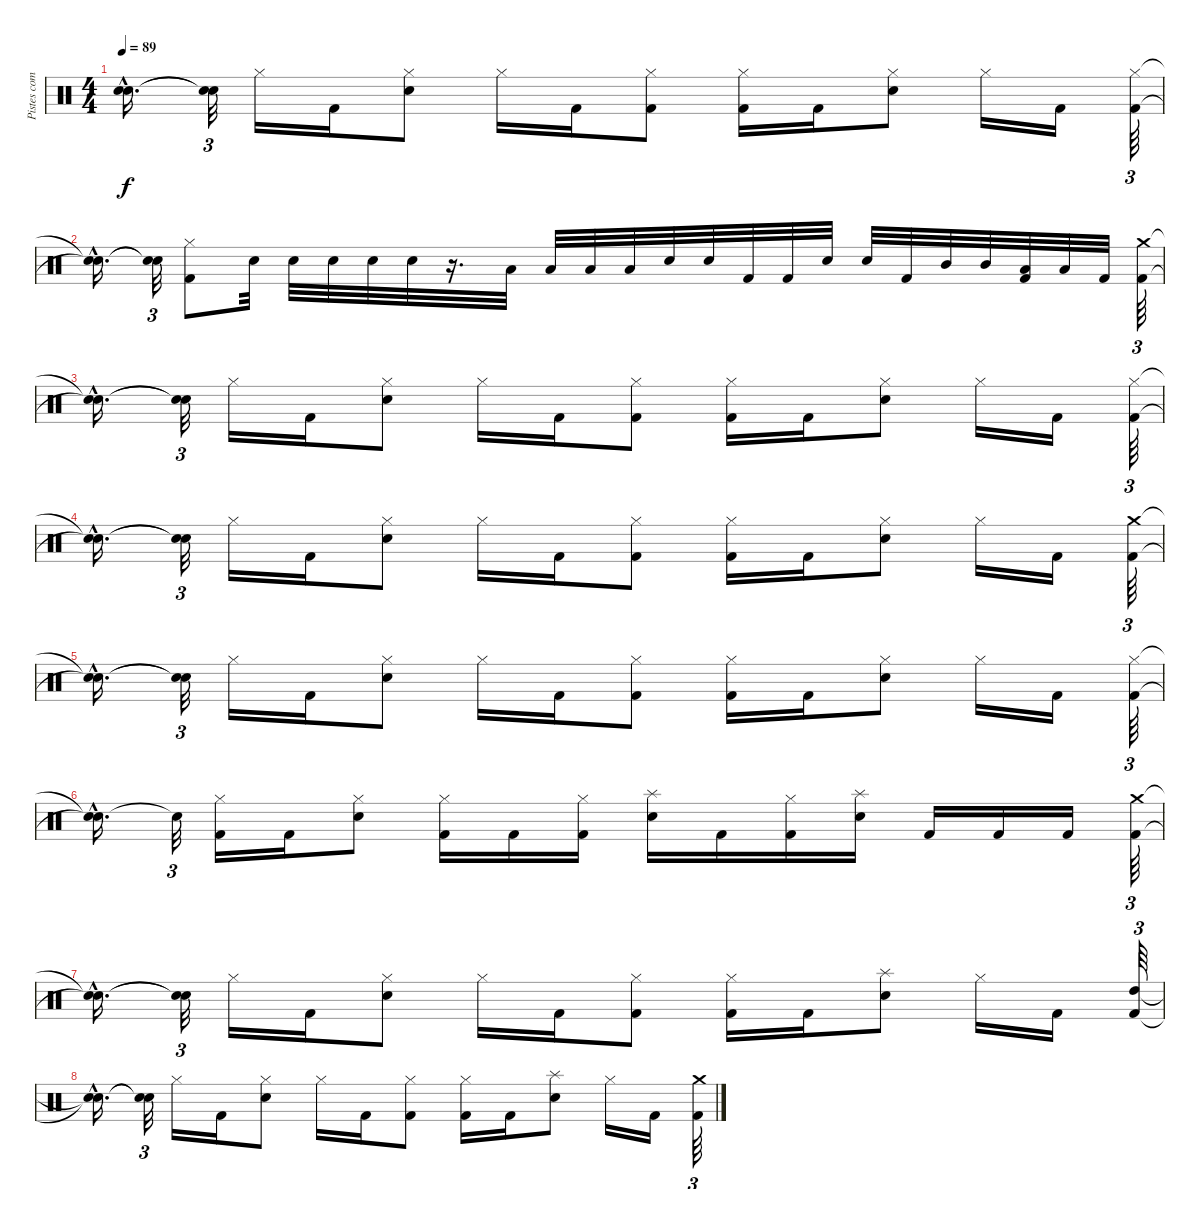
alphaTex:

\track ("Pistes combinées" "Pistes com") {instrument percussion}
\staff {score}
\articulation defaults
\ts (4 4)
\tempo 89
\clef neutral
\ks c
("Snare (hit)"{hac t} "Snare (hit)"{hac t}).16{d dy f} ("Snare (hit)"{t} "Snare (hit)"{t}).32{tu (3 2)} "Hi-Hat (closed)".16 "Kick (hit) 2".16 ("Hi-Hat (closed)" "Electric Snare (hit)").8 "Hi-Hat (closed)".16 "Kick (hit) 2".16 ("Hi-Hat (closed)" "Kick (hit) 2").8 ("Hi-Hat (closed)" "Kick (hit) 2").16 "Kick (hit) 2".16 ("Hi-Hat (closed)" "Electric Snare (hit)").8 "Hi-Hat (closed)".16 "Kick (hit) 2".16 ("Hi-Hat (closed)" "Kick (hit) 2").64{tu (3 2)} |
("Snare (hit)"{hac t} "Snare (hit)"{hac t}).16{d} ("Snare (hit)"{t} "Snare (hit)"{t}).32{tu (3 2)} ("Hi-Hat (closed)" "Kick (hit) 2").8 "Electric Snare (hit)".32 "Electric Snare (hit)".32 "Electric Snare (hit)".32 "Electric Snare (hit)".32 "Electric Snare (hit)".32 r.16{d} "Low Tom (hit)".32 "Low Tom (hit)".32 "Low Tom (hit)".32 "Low Tom (hit)".32 "Electric Snare (hit)".32 "Electric Snare (hit)".32 "Kick (hit) 2".32 "Kick (hit) 2".32 "Electric Snare (hit)".32 "Electric Snare (hit)".32 "Kick (hit) 2".32 "Mid Tom (hit)".32 "Mid Tom (hit)".32 ("Kick (hit) 2" "Low Tom (hit)").32 "Low Tom (hit)".32 "Kick (hit) 2".32 ("Crash medium (hit)" "Kick (hit) 2").64{tu (3 2)} |
("Snare (hit)"{hac t} "Snare (hit)"{hac t}).16{d} ("Snare (hit)"{t} "Snare (hit)"{t}).32{tu (3 2)} "Hi-Hat (closed)".16 "Kick (hit) 2".16 ("Hi-Hat (closed)" "Electric Snare (hit)").8 "Hi-Hat (closed)".16 "Kick (hit) 2".16 ("Hi-Hat (closed)" "Kick (hit) 2").8 ("Hi-Hat (closed)" "Kick (hit) 2").16 "Kick (hit) 2".16 ("Hi-Hat (closed)" "Electric Snare (hit)").8 "Hi-Hat (closed)".16 "Kick (hit) 2".16 ("Hi-Hat (closed)" "Kick (hit) 2").64{tu (3 2)} |
("Snare (hit)"{hac t} "Snare (hit)"{hac t}).16{d} ("Snare (hit)"{t} "Snare (hit)"{t}).32{tu (3 2)} "Hi-Hat (closed)".16 "Kick (hit) 2".16 ("Hi-Hat (closed)" "Electric Snare (hit)").8 "Hi-Hat (closed)".16 "Kick (hit) 2".16 ("Hi-Hat (closed)" "Kick (hit) 2").8 ("Hi-Hat (closed)" "Kick (hit) 2").16 "Kick (hit) 2".16 ("Hi-Hat (closed)" "Electric Snare (hit)").8 "Hi-Hat (closed)".16 "Kick (hit) 2".16 ("Crash medium (hit)" "Kick (hit) 2").64{tu (3 2)} |
("Snare (hit)"{hac t} "Snare (hit)"{hac t}).16{d} ("Snare (hit)"{t} "Snare (hit)"{t}).32{tu (3 2)} "Hi-Hat (closed)".16 "Kick (hit) 2".16 ("Hi-Hat (closed)" "Electric Snare (hit)").8 "Hi-Hat (closed)".16 "Kick (hit) 2".16 ("Hi-Hat (closed)" "Kick (hit) 2").8 ("Hi-Hat (closed)" "Kick (hit) 2").16 "Kick (hit) 2".16 ("Hi-Hat (closed)" "Electric Snare (hit)").8 "Hi-Hat (closed)".16 "Kick (hit) 2".16 ("Hi-Hat (closed)" "Kick (hit) 2").64{tu (3 2)} |
("Snare (hit)"{hac t} "Snare (hit)"{hac t}).16{d} "Snare (hit)"{t}.32{tu (3 2)} ("Hi-Hat (closed)" "Kick (hit) 2").16 "Kick (hit) 2".16 ("Hi-Hat (closed)" "Electric Snare (hit)").8 ("Hi-Hat (closed)" "Kick (hit) 2").16 "Kick (hit) 2".16 ("Hi-Hat (closed)" "Kick (hit) 2").16 ("Splash (hit)" "Electric Snare (hit)").16 "Kick (hit) 2".16 ("Hi-Hat (closed)" "Kick (hit) 2").16 ("Splash (hit)" "Electric Snare (hit)").16 "Kick (hit) 2".16 "Kick (hit) 2".16 "Kick (hit) 2".16 ("Crash medium (hit)" "Kick (hit) 2").64{tu (3 2)} |
("Snare (hit)"{hac t} "Snare (hit)"{hac t}).16{d} ("Snare (hit)"{t} "Snare (hit)"{t}).32{tu (3 2)} "Hi-Hat (closed)".16 "Kick (hit) 2".16 ("Hi-Hat (closed)" "Electric Snare (hit)").8 "Hi-Hat (closed)".16 "Kick (hit) 2".16 ("Hi-Hat (closed)" "Kick (hit) 2").8 ("Hi-Hat (closed)" "Kick (hit) 2").16 "Kick (hit) 2".16 ("Splash (hit)" "Electric Snare (hit)").8 "Hi-Hat (closed)".16 "Kick (hit) 2".16 ("High Tom (hit)" "Kick (hit) 2").64{tu (3 2)} |
("Snare (hit)"{hac t} "Snare (hit)"{hac t}).16{d} ("Snare (hit)"{t} "Snare (hit)"{t}).32{tu (3 2)} "Hi-Hat (closed)".16 "Kick (hit) 2".16 ("Hi-Hat (closed)" "Electric Snare (hit)").8 "Hi-Hat (closed)".16 "Kick (hit) 2".16 ("Hi-Hat (closed)" "Kick (hit) 2").8 ("Hi-Hat (closed)" "Kick (hit) 2").16 "Kick (hit) 2".16 ("Splash (hit)" "Electric Snare (hit)").8 "Hi-Hat (closed)".16 "Kick (hit) 2".16 ("Crash medium (hit)" "Kick (hit) 2").64{tu (3 2)}
